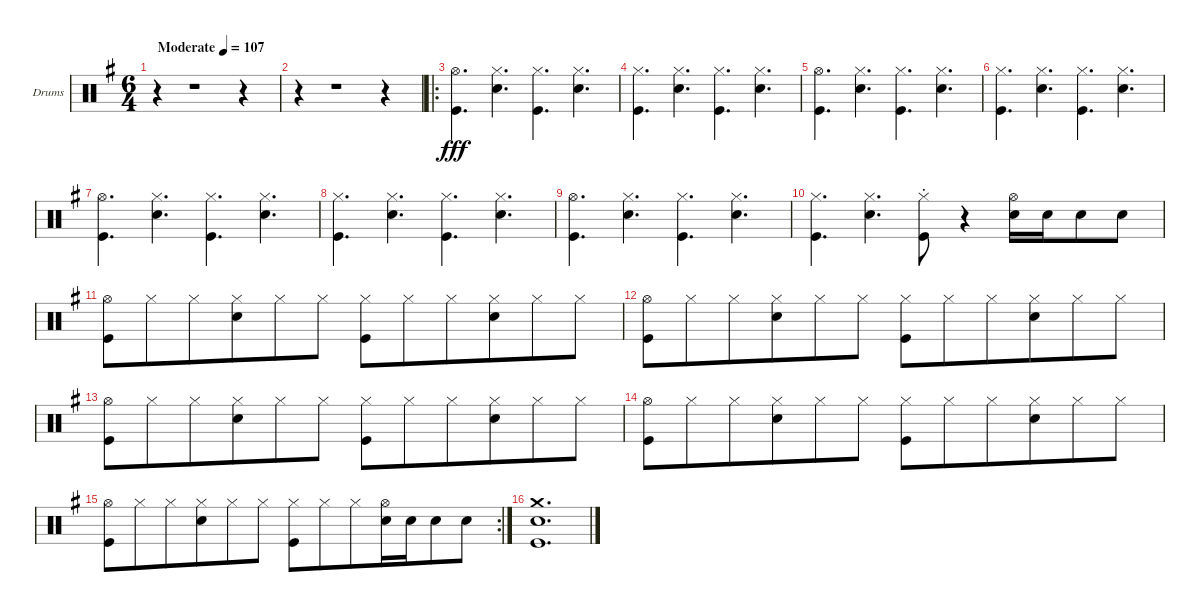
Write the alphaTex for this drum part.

\bracketExtendMode groupsimilarinstruments
\firstSystemTrackNameOrientation horizontal
\otherSystemsTrackNameOrientation horizontal
\track ("Drumkit" "Drums") {instrument percussion}
\staff {score}
\articulation defaults
\ts (6 4)
\beaming (8 6 6)
\tempo (107 "Moderate")
\clef neutral
\ks g
r.4{dy fff} r.1 r.4 |
r.4 r.1 r.4 |
\ro
("Kick (hit)" "Hi-Hat (open)").4{d} ("Hi-Hat (closed)" "Snare (hit) 2").4{d} ("Hi-Hat (closed)" "Kick (hit)").4{d} ("Hi-Hat (closed)" "Snare (hit) 2").4{d} |
("Kick (hit)" "Hi-Hat (closed)").4{d} ("Hi-Hat (closed)" "Snare (hit) 2").4{d} ("Hi-Hat (closed)" "Kick (hit)").4{d} ("Hi-Hat (closed)" "Snare (hit) 2").4{d} |
("Kick (hit)" "Hi-Hat (open)").4{d} ("Hi-Hat (closed)" "Snare (hit) 2").4{d} ("Hi-Hat (closed)" "Kick (hit)").4{d} ("Hi-Hat (closed)" "Snare (hit) 2").4{d} |
("Kick (hit)" "Hi-Hat (closed)").4{d} ("Hi-Hat (closed)" "Snare (hit) 2").4{d} ("Hi-Hat (closed)" "Kick (hit)").4{d} ("Hi-Hat (closed)" "Snare (hit) 2").4{d} |
("Kick (hit)" "Hi-Hat (open)").4{d} ("Hi-Hat (closed)" "Snare (hit) 2").4{d} ("Hi-Hat (closed)" "Kick (hit)").4{d} ("Hi-Hat (closed)" "Snare (hit) 2").4{d} |
("Kick (hit)" "Hi-Hat (closed)").4{d} ("Hi-Hat (closed)" "Snare (hit) 2").4{d} ("Hi-Hat (closed)" "Kick (hit)").4{d} ("Hi-Hat (closed)" "Snare (hit) 2").4{d} |
("Kick (hit)" "Hi-Hat (open)").4{d} ("Hi-Hat (closed)" "Snare (hit) 2").4{d} ("Hi-Hat (closed)" "Kick (hit)").4{d} ("Hi-Hat (closed)" "Snare (hit) 2").4{d} |
("Hi-Hat (closed)" "Kick (hit)").4{d} ("Snare (hit) 2" "Hi-Hat (closed)").4{d} ("Kick (hit)"{st} "Hi-Hat (closed)"{st}).8 r.4 ("Snare (hit) 2" "Hi-Hat (open)").16 "Snare (hit) 2".16 "Snare (hit) 2".8 "Snare (hit) 2".8 |
("Kick (hit)" "Hi-Hat (open)").8 "Hi-Hat (closed)".8 "Hi-Hat (closed)".8 ("Hi-Hat (closed)" "Snare (hit) 2").8 "Hi-Hat (closed)".8 "Hi-Hat (closed)".8 ("Hi-Hat (closed)" "Kick (hit)").8 "Hi-Hat (closed)".8 "Hi-Hat (closed)".8 ("Hi-Hat (closed)" "Snare (hit) 2").8 "Hi-Hat (closed)".8 "Hi-Hat (closed)".8 |
("Kick (hit)" "Hi-Hat (open)").8 "Hi-Hat (closed)".8 "Hi-Hat (closed)".8 ("Hi-Hat (closed)" "Snare (hit) 2").8 "Hi-Hat (closed)".8 "Hi-Hat (closed)".8 ("Hi-Hat (closed)" "Kick (hit)").8 "Hi-Hat (closed)".8 "Hi-Hat (closed)".8 ("Hi-Hat (closed)" "Snare (hit) 2").8 "Hi-Hat (closed)".8 "Hi-Hat (closed)".8 |
("Kick (hit)" "Hi-Hat (open)").8 "Hi-Hat (closed)".8 "Hi-Hat (closed)".8 ("Hi-Hat (closed)" "Snare (hit) 2").8 "Hi-Hat (closed)".8 "Hi-Hat (closed)".8 ("Hi-Hat (closed)" "Kick (hit)").8 "Hi-Hat (closed)".8 "Hi-Hat (closed)".8 ("Hi-Hat (closed)" "Snare (hit) 2").8 "Hi-Hat (closed)".8 "Hi-Hat (closed)".8 |
("Kick (hit)" "Hi-Hat (open)").8 "Hi-Hat (closed)".8 "Hi-Hat (closed)".8 ("Hi-Hat (closed)" "Snare (hit) 2").8 "Hi-Hat (closed)".8 "Hi-Hat (closed)".8 ("Hi-Hat (closed)" "Kick (hit)").8 "Hi-Hat (closed)".8 "Hi-Hat (closed)".8 ("Hi-Hat (closed)" "Snare (hit) 2").8 "Hi-Hat (closed)".8 "Hi-Hat (closed)".8 |
\rc 2
("Kick (hit)" "Hi-Hat (open)").8 "Hi-Hat (closed)".8 "Hi-Hat (closed)".8 ("Hi-Hat (closed)" "Snare (hit) 2").8 "Hi-Hat (closed)".8 "Hi-Hat (closed)".8 ("Hi-Hat (closed)" "Kick (hit)").8 "Hi-Hat (closed)".8 "Hi-Hat (closed)".8 ("Snare (hit) 2" "Hi-Hat (open)").16 "Snare (hit) 2".16 "Snare (hit) 2".8 "Snare (hit) 2".8 |
("Kick (hit)" "Crash medium (hit)" "Snare (hit) 2").1{d}
